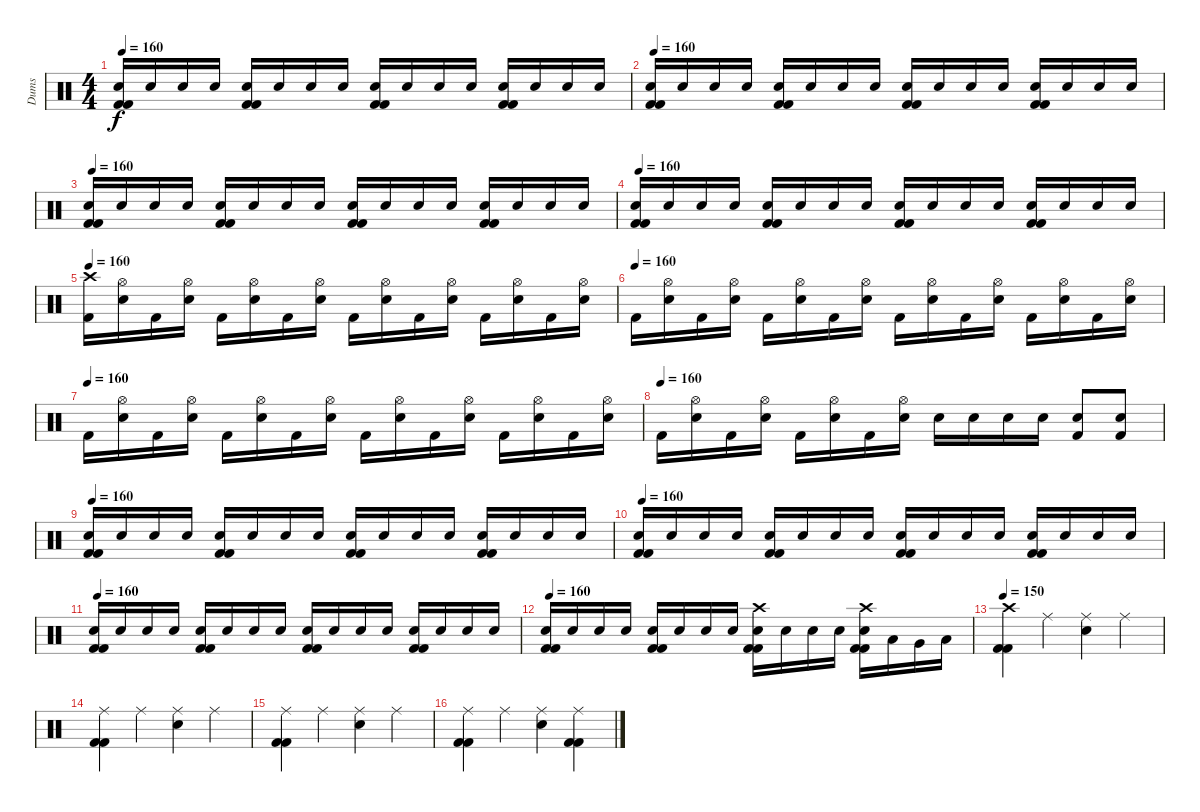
\track ("Dums" "Dums") {instrument percussion}
\staff {score}
\articulation defaults
\ts (4 4)
\tempo 160
\clef neutral
\ks c
("Electric Snare (hit)" "Kick (hit) 2" "Kick (hit) 2").16{dy f} "Electric Snare (hit)".16 "Electric Snare (hit)".16 "Electric Snare (hit)".16 ("Electric Snare (hit)" "Kick (hit) 2" "Kick (hit) 2").16 "Electric Snare (hit)".16 "Electric Snare (hit)".16 "Electric Snare (hit)".16 ("Electric Snare (hit)" "Kick (hit) 2" "Kick (hit) 2").16 "Electric Snare (hit)".16 "Electric Snare (hit)".16 "Electric Snare (hit)".16 ("Electric Snare (hit)" "Kick (hit) 2" "Kick (hit) 2").16 "Electric Snare (hit)".16 "Electric Snare (hit)".16 "Electric Snare (hit)".16 |
\tempo 160
("Electric Snare (hit)" "Kick (hit) 2" "Kick (hit) 2").16 "Electric Snare (hit)".16 "Electric Snare (hit)".16 "Electric Snare (hit)".16 ("Electric Snare (hit)" "Kick (hit) 2" "Kick (hit) 2").16 "Electric Snare (hit)".16 "Electric Snare (hit)".16 "Electric Snare (hit)".16 ("Electric Snare (hit)" "Kick (hit) 2" "Kick (hit) 2").16 "Electric Snare (hit)".16 "Electric Snare (hit)".16 "Electric Snare (hit)".16 ("Electric Snare (hit)" "Kick (hit) 2" "Kick (hit) 2").16 "Electric Snare (hit)".16 "Electric Snare (hit)".16 "Electric Snare (hit)".16 |
\tempo 160
("Electric Snare (hit)" "Kick (hit) 2" "Kick (hit) 2").16 "Electric Snare (hit)".16 "Electric Snare (hit)".16 "Electric Snare (hit)".16 ("Electric Snare (hit)" "Kick (hit) 2" "Kick (hit) 2").16 "Electric Snare (hit)".16 "Electric Snare (hit)".16 "Electric Snare (hit)".16 ("Electric Snare (hit)" "Kick (hit) 2" "Kick (hit) 2").16 "Electric Snare (hit)".16 "Electric Snare (hit)".16 "Electric Snare (hit)".16 ("Electric Snare (hit)" "Kick (hit) 2" "Kick (hit) 2").16 "Electric Snare (hit)".16 "Electric Snare (hit)".16 "Electric Snare (hit)".16 |
\tempo 160
("Electric Snare (hit)" "Kick (hit) 2" "Kick (hit) 2").16 "Electric Snare (hit)".16 "Electric Snare (hit)".16 "Electric Snare (hit)".16 ("Electric Snare (hit)" "Kick (hit) 2" "Kick (hit) 2").16 "Electric Snare (hit)".16 "Electric Snare (hit)".16 "Electric Snare (hit)".16 ("Electric Snare (hit)" "Kick (hit) 2" "Kick (hit) 2").16 "Electric Snare (hit)".16 "Electric Snare (hit)".16 "Electric Snare (hit)".16 ("Electric Snare (hit)" "Kick (hit) 2" "Kick (hit) 2").16 "Electric Snare (hit)".16 "Electric Snare (hit)".16 "Electric Snare (hit)".16 |
\tempo 160
("Crash high (hit)" "Kick (hit) 2").16 ("Hi-Hat (open)" "Electric Snare (hit)").16 "Kick (hit) 2".16 ("Hi-Hat (open)" "Electric Snare (hit)").16 "Kick (hit) 2".16 ("Hi-Hat (open)" "Electric Snare (hit)").16 "Kick (hit) 2".16 ("Hi-Hat (open)" "Electric Snare (hit)").16 "Kick (hit) 2".16 ("Hi-Hat (open)" "Electric Snare (hit)").16 "Kick (hit) 2".16 ("Hi-Hat (open)" "Electric Snare (hit)").16 "Kick (hit) 2".16 ("Hi-Hat (open)" "Electric Snare (hit)").16 "Kick (hit) 2".16 ("Hi-Hat (open)" "Electric Snare (hit)").16 |
\tempo (160)
"Kick (hit) 2".16 ("Hi-Hat (open)" "Electric Snare (hit)").16 "Kick (hit) 2".16 ("Hi-Hat (open)" "Electric Snare (hit)").16 "Kick (hit) 2".16 ("Hi-Hat (open)" "Electric Snare (hit)").16 "Kick (hit) 2".16 ("Hi-Hat (open)" "Electric Snare (hit)").16 "Kick (hit) 2".16 ("Hi-Hat (open)" "Electric Snare (hit)").16 "Kick (hit) 2".16 ("Hi-Hat (open)" "Electric Snare (hit)").16 "Kick (hit) 2".16 ("Hi-Hat (open)" "Electric Snare (hit)").16 "Kick (hit) 2".16 ("Hi-Hat (open)" "Electric Snare (hit)").16 |
\tempo (160)
"Kick (hit) 2".16 ("Hi-Hat (open)" "Electric Snare (hit)").16 "Kick (hit) 2".16 ("Hi-Hat (open)" "Electric Snare (hit)").16 "Kick (hit) 2".16 ("Hi-Hat (open)" "Electric Snare (hit)").16 "Kick (hit) 2".16 ("Hi-Hat (open)" "Electric Snare (hit)").16 "Kick (hit) 2".16 ("Hi-Hat (open)" "Electric Snare (hit)").16 "Kick (hit) 2".16 ("Hi-Hat (open)" "Electric Snare (hit)").16 "Kick (hit) 2".16 ("Hi-Hat (open)" "Electric Snare (hit)").16 "Kick (hit) 2".16 ("Hi-Hat (open)" "Electric Snare (hit)").16 |
\tempo (160)
"Kick (hit) 2".16 ("Hi-Hat (open)" "Electric Snare (hit)").16 "Kick (hit) 2".16 ("Hi-Hat (open)" "Electric Snare (hit)").16 "Kick (hit) 2".16 ("Hi-Hat (open)" "Electric Snare (hit)").16 "Kick (hit) 2".16 ("Hi-Hat (open)" "Electric Snare (hit)").16 "Electric Snare (hit)".16 "Electric Snare (hit)".16 "Electric Snare (hit)".16 "Electric Snare (hit)".16 ("Electric Snare (hit)" "Kick (hit) 2").8 ("Electric Snare (hit)" "Kick (hit) 2").8 |
\tempo 160
("Electric Snare (hit)" "Kick (hit) 2" "Kick (hit) 2").16 "Electric Snare (hit)".16 "Electric Snare (hit)".16 "Electric Snare (hit)".16 ("Electric Snare (hit)" "Kick (hit) 2" "Kick (hit) 2").16 "Electric Snare (hit)".16 "Electric Snare (hit)".16 "Electric Snare (hit)".16 ("Electric Snare (hit)" "Kick (hit) 2" "Kick (hit) 2").16 "Electric Snare (hit)".16 "Electric Snare (hit)".16 "Electric Snare (hit)".16 ("Electric Snare (hit)" "Kick (hit) 2" "Kick (hit) 2").16 "Electric Snare (hit)".16 "Electric Snare (hit)".16 "Electric Snare (hit)".16 |
\tempo 160
("Electric Snare (hit)" "Kick (hit) 2" "Kick (hit) 2").16 "Electric Snare (hit)".16 "Electric Snare (hit)".16 "Electric Snare (hit)".16 ("Electric Snare (hit)" "Kick (hit) 2" "Kick (hit) 2").16 "Electric Snare (hit)".16 "Electric Snare (hit)".16 "Electric Snare (hit)".16 ("Electric Snare (hit)" "Kick (hit) 2" "Kick (hit) 2").16 "Electric Snare (hit)".16 "Electric Snare (hit)".16 "Electric Snare (hit)".16 ("Electric Snare (hit)" "Kick (hit) 2" "Kick (hit) 2").16 "Electric Snare (hit)".16 "Electric Snare (hit)".16 "Electric Snare (hit)".16 |
\tempo 160
("Electric Snare (hit)" "Kick (hit) 2" "Kick (hit) 2").16 "Electric Snare (hit)".16 "Electric Snare (hit)".16 "Electric Snare (hit)".16 ("Electric Snare (hit)" "Kick (hit) 2" "Kick (hit) 2").16 "Electric Snare (hit)".16 "Electric Snare (hit)".16 "Electric Snare (hit)".16 ("Electric Snare (hit)" "Kick (hit) 2" "Kick (hit) 2").16 "Electric Snare (hit)".16 "Electric Snare (hit)".16 "Electric Snare (hit)".16 ("Electric Snare (hit)" "Kick (hit) 2" "Kick (hit) 2").16 "Electric Snare (hit)".16 "Electric Snare (hit)".16 "Electric Snare (hit)".16 |
\tempo 160
("Electric Snare (hit)" "Kick (hit) 2" "Kick (hit) 2").16 "Electric Snare (hit)".16 "Electric Snare (hit)".16 "Electric Snare (hit)".16 ("Electric Snare (hit)" "Kick (hit) 2" "Kick (hit) 2").16 "Electric Snare (hit)".16 "Electric Snare (hit)".16 "Electric Snare (hit)".16 ("Crash high (hit)" "Electric Snare (hit)" "Kick (hit) 2" "Kick (hit) 2").16 "Electric Snare (hit)".16 "Electric Snare (hit)".16 "Electric Snare (hit)".16 ("Crash high (hit)" "Electric Snare (hit)" "Kick (hit) 2" "Kick (hit) 2").16 "Low Tom (hit)".16 "Very Low Tom (hit)".16 "Low Floor Tom (hit)".16 |
\tempo 150
("Crash high (hit)" "Kick (hit) 2" "Kick (hit) 2").4 "Ride (middle)".4 ("Ride (middle)" "Electric Snare (hit)").4 "Ride (middle)".4 |
("Ride (middle)" "Kick (hit) 2" "Kick (hit) 2").4 "Ride (middle)".4 ("Ride (middle)" "Electric Snare (hit)").4 "Ride (middle)".4 |
("Ride (middle)" "Kick (hit) 2" "Kick (hit) 2").4 "Ride (middle)".4 ("Ride (middle)" "Electric Snare (hit)").4 "Ride (middle)".4 |
("Ride (middle)" "Kick (hit) 2" "Kick (hit) 2").4 "Ride (middle)".4 ("Ride (middle)" "Electric Snare (hit)").4 ("Ride (middle)" "Kick (hit) 2" "Kick (hit) 2").4
